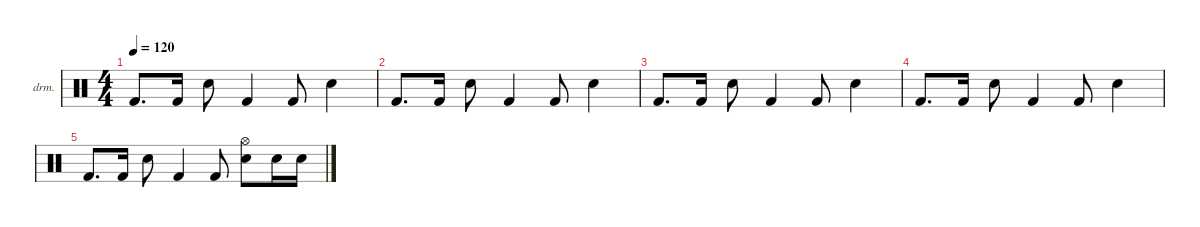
\defaultSystemsLayout 4
\hideDynamics
\bracketExtendMode nobrackets
\firstSystemTrackNameOrientation horizontal
\otherSystemsTrackNameOrientation horizontal
\track ("Percussion" "drm.") {instrument percussion}
\staff {score}
\articulation defaults
\ts (4 4)
\tempo 120
\clef neutral
\ks c "Kick (hit) 2".8{d dy f} "Kick (hit) 2".16 "Snare (hit) 2".8 "Kick (hit) 2".4 "Kick (hit) 2".8 "Snare (hit) 2".4
|
"Kick (hit) 2".8{d} "Kick (hit) 2".16 "Snare (hit) 2".8 "Kick (hit) 2".4 "Kick (hit) 2".8 "Snare (hit) 2".4 |
"Kick (hit) 2".8{d} "Kick (hit) 2".16 "Snare (hit) 2".8 "Kick (hit) 2".4 "Kick (hit) 2".8 "Snare (hit) 2".4 |
"Kick (hit) 2".8{d} "Kick (hit) 2".16 "Snare (hit) 2".8 "Kick (hit) 2".4 "Kick (hit) 2".8 "Snare (hit) 2".4 |
"Kick (hit) 2".8{d} "Kick (hit) 2".16 "Snare (hit) 2".8 "Kick (hit) 2".4 "Kick (hit) 2".8 ("Snare (hit) 2" "Hi-Hat (open)").8 "Snare (hit) 2".16 "Snare (hit) 2".16
